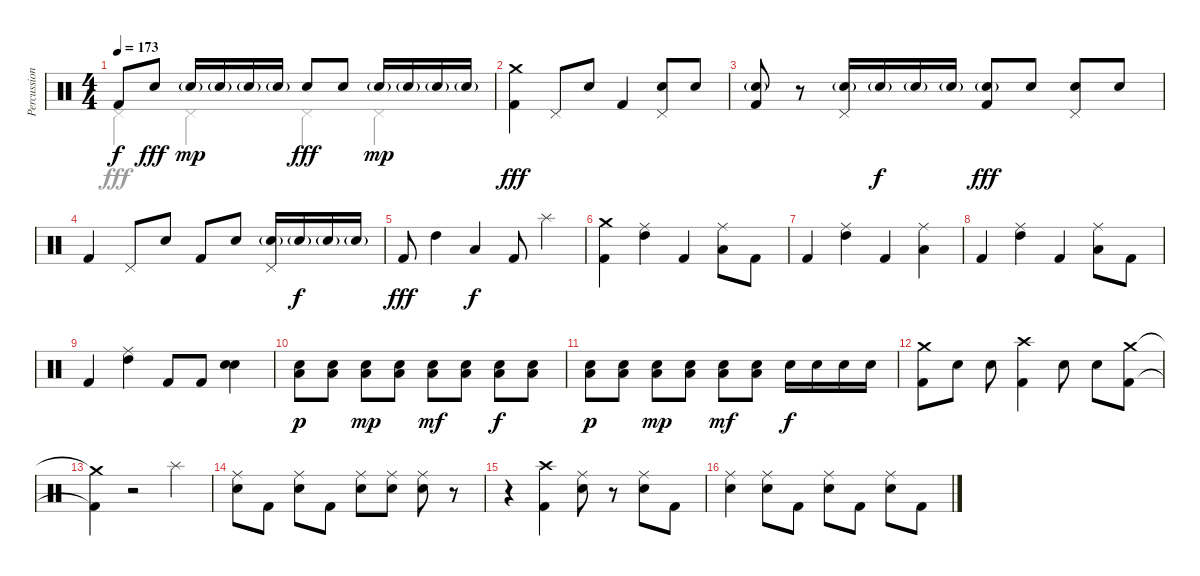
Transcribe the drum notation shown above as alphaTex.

\track ("Percussion" "Percussion") {instrument percussion}
\staff {score}
\articulation defaults
\voice
\ts (4 4)
\tempo 173
\clef neutral
\ks c "Kick (hit) 2".8{dy f} "Electric Snare (hit)".8{dy fff} "Electric Snare (hit)"{g}.16{dy mp} "Electric Snare (hit)"{g}.16 "Electric Snare (hit)"{g}.16 "Electric Snare (hit)"{g}.16 "Electric Snare (hit)".8{dy fff} "Electric Snare (hit)".8 "Electric Snare (hit)"{g}.16{dy mp} "Electric Snare (hit)"{g}.16 "Electric Snare (hit)"{g}.16 "Electric Snare (hit)"{g}.16
|
("Crash medium (hit)" "Kick (hit) 2").4{dy fff} "Pedal Hi-Hat (hit)".8 "Electric Snare (hit)".8 "Kick (hit) 2".4 ("Pedal Hi-Hat (hit)" "Electric Snare (hit)").8 "Electric Snare (hit)".8 |
("Electric Snare (hit)"{g} "Kick (hit) 2").8 r.8 ("Pedal Hi-Hat (hit)" "Electric Snare (hit)"{g}).16 "Electric Snare (hit)"{g}.16{dy f} "Electric Snare (hit)"{g}.16 "Electric Snare (hit)"{g}.16 ("Electric Snare (hit)"{g} "Kick (hit) 2").8{dy fff} "Electric Snare (hit)".8 ("Pedal Hi-Hat (hit)" "Electric Snare (hit)").8 "Electric Snare (hit)".8 |
"Kick (hit) 2".4 "Pedal Hi-Hat (hit)".8 "Electric Snare (hit)".8 "Kick (hit) 2".8 "Electric Snare (hit)".8 ("Pedal Hi-Hat (hit)" "Electric Snare (hit)"{g}).16 "Electric Snare (hit)"{g}.16{dy f} "Electric Snare (hit)"{g}.16 "Electric Snare (hit)"{g}.16 |
"Kick (hit) 2".8{dy fff} "High Tom (hit)".4 "Low Tom (hit)".4{dy f} "Kick (hit) 2".8 "Splash (hit)".4 |
("Crash medium (hit)" "Kick (hit) 2").4 ("Ride (middle)" "High Tom (hit)").4 "Kick (hit) 2".4 ("Ride (middle)" "Low Tom (hit)").8 "Kick (hit) 2".8 |
"Kick (hit) 2".4 ("Ride (middle)" "High Tom (hit)").4 "Kick (hit) 2".4 ("Ride (middle)" "Low Tom (hit)").4 |
"Kick (hit) 2".4 ("Ride (middle)" "High Tom (hit)").4 "Kick (hit) 2".4 ("Ride (middle)" "Low Tom (hit)").8 "Kick (hit) 2".8 |
"Kick (hit) 2".4 ("Ride (middle)" "High Tom (hit)").4 "Kick (hit) 2".8 "Kick (hit) 2".8 ("Electric Snare (hit)" "Electric Snare (hit)").4 |
("Low Floor Tom (hit)" "Electric Snare (hit)").8{dy p} ("Low Floor Tom (hit)" "Electric Snare (hit)").8 ("Low Floor Tom (hit)" "Electric Snare (hit)").8{dy mp} ("Low Floor Tom (hit)" "Electric Snare (hit)").8 ("Low Floor Tom (hit)" "Electric Snare (hit)").8{dy mf} ("Low Floor Tom (hit)" "Electric Snare (hit)").8 ("Low Floor Tom (hit)" "Electric Snare (hit)").8{dy f} ("Low Floor Tom (hit)" "Electric Snare (hit)").8 |
("Low Floor Tom (hit)" "Electric Snare (hit)").8{dy p} ("Low Floor Tom (hit)" "Electric Snare (hit)").8 ("Low Floor Tom (hit)" "Electric Snare (hit)").8{dy mp} ("Low Floor Tom (hit)" "Electric Snare (hit)").8 ("Low Floor Tom (hit)" "Electric Snare (hit)").8{dy mf} ("Low Floor Tom (hit)" "Electric Snare (hit)").8 "Electric Snare (hit)".16{dy f} "Electric Snare (hit)".16 "Electric Snare (hit)".16 "Electric Snare (hit)".16 |
("Crash medium (hit)" "Kick (hit) 2").8 "Electric Snare (hit)".8 "Electric Snare (hit)".8 ("Crash high (hit)" "Kick (hit) 2").4 "Electric Snare (hit)".8 "Electric Snare (hit)".8 ("Crash medium (hit)" "Kick (hit) 2").8 |
("Crash medium (hit)"{t} "Kick (hit) 2"{t}).4 r.2 "Splash (hit)".4 |
("Ride (middle)" "Electric Snare (hit)").8 "Kick (hit) 2".8 ("Ride (middle)" "Electric Snare (hit)").8 "Kick (hit) 2".8 ("Ride (middle)" "Electric Snare (hit)").8 ("Ride (middle)" "Electric Snare (hit)").8 ("Ride (middle)" "Electric Snare (hit)").8 r.8 |
r.4 ("Crash high (hit)" "Kick (hit) 2").4 ("Ride (middle)" "Electric Snare (hit)").8 r.8 ("Ride (middle)" "Electric Snare (hit)").8 "Kick (hit) 2".8 |
("Ride (middle)" "Electric Snare (hit)").4 ("Ride (middle)" "Electric Snare (hit)").8 "Kick (hit) 2".8 ("Ride (middle)" "Electric Snare (hit)").8 "Kick (hit) 2".8 ("Ride (middle)" "Electric Snare (hit)").8 "Kick (hit) 2".8
\voice
\clef neutral
\ottava regular
\simile none
\ks c "Pedal Hi-Hat (hit)".4{dy fff} "Pedal Hi-Hat (hit)".4 "Pedal Hi-Hat (hit)".4 "Pedal Hi-Hat (hit)".4
|
|
|
|
|
|
|
|
|
|
|
|
|
|
|
